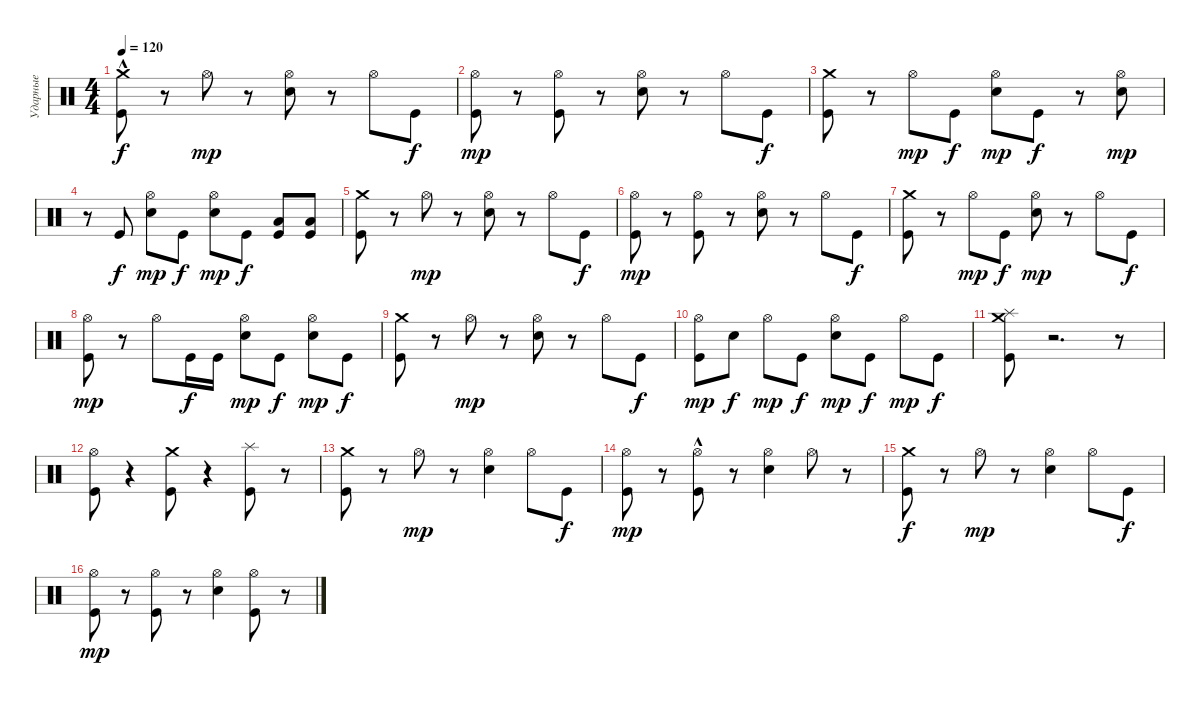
\track ("Ударные" "Ударные") {instrument percussion}
\staff {score}
\articulation defaults
\ts (4 4)
\tempo 120
\clef neutral
\ks c
("Crash medium (hit)"{hac} "Kick (hit)").8{dy f} r.8 "Hi-Hat (open)".8{dy mp} r.8 ("Snare (hit) 2" "Hi-Hat (open)").8 r.8 "Hi-Hat (open)".8 "Kick (hit)".8{dy f} |
("Kick (hit)" "Hi-Hat (open)").8{dy mp} r.8 ("Kick (hit)" "Hi-Hat (open)").8 r.8 ("Snare (hit) 2" "Hi-Hat (open)").8 r.8 "Hi-Hat (open)".8 "Kick (hit)".8{dy f} |
("Crash medium (hit)" "Kick (hit)").8 r.8 "Hi-Hat (open)".8{dy mp} "Kick (hit)".8{dy f} ("Snare (hit) 2" "Hi-Hat (open)").8{dy mp} "Kick (hit)".8{dy f} r.8 ("Snare (hit) 2" "Hi-Hat (open)").8{dy mp} |
r.8 "Kick (hit)".8{dy f} ("Snare (hit) 2" "Hi-Hat (open)").8{dy mp} "Kick (hit)".8{dy f} ("Snare (hit) 2" "Hi-Hat (open)").8{dy mp} "Kick (hit)".8{dy f} ("Low Floor Tom (hit)" "Kick (hit)").8 ("Low Floor Tom (hit)" "Kick (hit)").8 |
("Crash medium (hit)" "Kick (hit)").8 r.8 "Hi-Hat (open)".8{dy mp} r.8 ("Snare (hit) 2" "Hi-Hat (open)").8 r.8 "Hi-Hat (open)".8 "Kick (hit)".8{dy f} |
("Kick (hit)" "Hi-Hat (open)").8{dy mp} r.8 ("Kick (hit)" "Hi-Hat (open)").8 r.8 ("Snare (hit) 2" "Hi-Hat (open)").8 r.8 "Hi-Hat (open)".8 "Kick (hit)".8{dy f} |
("Crash medium (hit)" "Kick (hit)").8 r.8 "Hi-Hat (open)".8{dy mp} "Kick (hit)".8{dy f} ("Snare (hit) 2" "Hi-Hat (open)").8{dy mp} r.8 "Hi-Hat (open)".8 "Kick (hit)".8{dy f} |
("Kick (hit)" "Hi-Hat (open)").8{dy mp} r.8 "Hi-Hat (open)".8 "Kick (hit)".16{dy f} "Kick (hit)".16 ("Snare (hit) 2" "Hi-Hat (open)").8{dy mp} "Kick (hit)".8{dy f} ("Snare (hit) 2" "Hi-Hat (open)").8{dy mp} "Kick (hit)".8{dy f} |
("Kick (hit)" "Crash medium (hit)").8 r.8 "Hi-Hat (open)".8{dy mp} r.8 ("Snare (hit) 2" "Hi-Hat (open)").8 r.8 "Hi-Hat (open)".8 "Kick (hit)".8{dy f} |
("Kick (hit)" "Hi-Hat (open)").8{dy mp} "Snare (hit) 2".8{dy f} "Hi-Hat (open)".8{dy mp} "Kick (hit)".8{dy f} ("Snare (hit) 2" "Hi-Hat (open)").8{dy mp} "Kick (hit)".8{dy f} "Hi-Hat (open)".8{dy mp} "Kick (hit)".8{dy f} |
("Splash (hit)" "Crash medium (hit)" "Kick (hit)").8 r.2{d} r.8 |
("Hi-Hat (open)" "Kick (hit)").8 r.4 ("Crash medium (hit)" "Kick (hit)").8 r.4 ("Splash (hit)" "Kick (hit)").8 r.8 |
("Kick (hit)" "Crash medium (hit)").8 r.8 "Hi-Hat (open)".8{dy mp} r.8 ("Snare (hit) 2" "Hi-Hat (open)").4 "Hi-Hat (open)".8 "Kick (hit)".8{dy f} |
("Kick (hit)" "Hi-Hat (open)").8{dy mp} r.8 ("Kick (hit)"{hac} "Hi-Hat (open)").8 r.8 ("Snare (hit) 2" "Hi-Hat (open)").4 "Hi-Hat (open)".8 r.8 |
("Crash medium (hit)" "Kick (hit)").8{dy f} r.8 "Hi-Hat (open)".8{dy mp} r.8 ("Snare (hit) 2" "Hi-Hat (open)").4 "Hi-Hat (open)".8 "Kick (hit)".8{dy f} |
("Kick (hit)" "Hi-Hat (open)").8{dy mp} r.8 ("Kick (hit)" "Hi-Hat (open)").8 r.8 ("Snare (hit) 2" "Hi-Hat (open)").4 ("Kick (hit)" "Hi-Hat (open)").8 r.8
